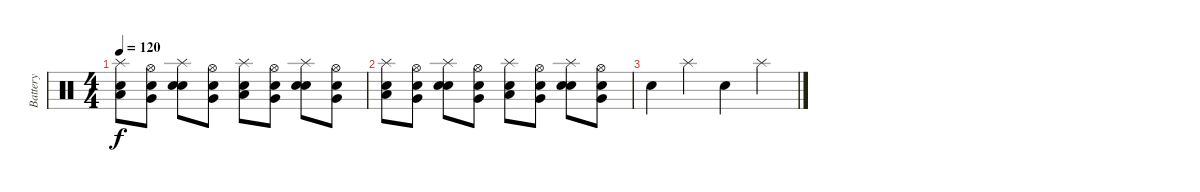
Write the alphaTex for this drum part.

\track ("Battery" "Battery") {instrument percussion}
\staff {score}
\articulation defaults
\ts (4 4)
\tempo 120
\clef neutral
\ks c
("Snare (hit) 2" "Low Floor Tom (hit)" "Splash (hit)").8{dy f} ("Snare (hit) 2" "Very Low Tom (hit)" "Hi-Hat (open)").8 ("Snare (hit) 2" "Electric Snare (hit)" "Splash (hit)").8 ("Snare (hit) 2" "Very Low Tom (hit)" "Hi-Hat (open)").8 ("Snare (hit) 2" "Low Floor Tom (hit)" "Splash (hit)").8 ("Snare (hit) 2" "Very Low Tom (hit)" "Hi-Hat (open)").8 ("Snare (hit) 2" "Electric Snare (hit)" "Splash (hit)").8 ("Snare (hit) 2" "Very Low Tom (hit)" "Hi-Hat (open)").8 |
("Snare (hit) 2" "Low Floor Tom (hit)" "Splash (hit)").8 ("Snare (hit) 2" "Very Low Tom (hit)" "Hi-Hat (open)").8 ("Snare (hit) 2" "Electric Snare (hit)" "Splash (hit)").8 ("Snare (hit) 2" "Very Low Tom (hit)" "Hi-Hat (open)").8 ("Snare (hit) 2" "Low Floor Tom (hit)" "Splash (hit)").8 ("Snare (hit) 2" "Very Low Tom (hit)" "Hi-Hat (open)").8 ("Snare (hit) 2" "Electric Snare (hit)" "Splash (hit)").8 ("Snare (hit) 2" "Very Low Tom (hit)" "Hi-Hat (open)").8 |
"Snare (hit)".4 "Splash (hit)".4 "Snare (hit)".4 "Splash (hit)".4
